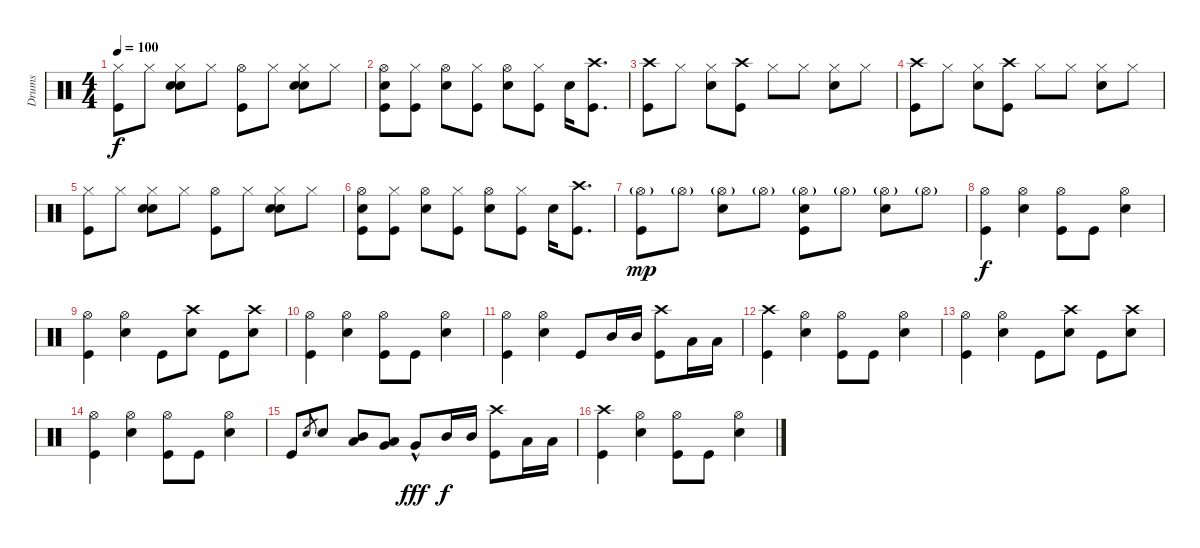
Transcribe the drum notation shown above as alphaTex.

\track ("Drums" "Drums") {instrument percussion}
\staff {score}
\articulation defaults
\ts (4 4)
\tempo 100
\clef neutral
\ks c
("Hi-Hat (closed)" "Kick (hit)").8{dy f volume 12} "Hi-Hat (closed)".8 ("Hi-Hat (closed)" "Hand Clap (hit)" "Snare (hit) 2").8 "Hi-Hat (closed)".8 ("Hi-Hat (open)" "Kick (hit)").8 "Hi-Hat (closed)".8 ("Hi-Hat (closed)" "Hand Clap (hit)" "Snare (hit) 2").8 "Hi-Hat (closed)".8 |
("Hi-Hat (open)" "Hand Clap (hit)" "Kick (hit)").8 ("Hi-Hat (closed)" "Kick (hit)").8 ("Hi-Hat (open)" "Snare (hit) 2").8 ("Hi-Hat (closed)" "Kick (hit)").8 ("Hi-Hat (open)" "Snare (hit) 2").8 ("Hi-Hat (closed)" "Kick (hit)").8 "Snare (hit) 2".16 ("Crash high (hit)" "Kick (hit)").8{d} |
("Crash high (hit)" "Kick (hit)").8 "Hi-Hat (closed)".8 ("Hi-Hat (closed)" "Snare (hit) 2").8 ("Crash high (hit)" "Kick (hit)").8 "Hi-Hat (closed)".8 "Hi-Hat (closed)".8 ("Hi-Hat (closed)" "Snare (hit) 2").8 "Hi-Hat (closed)".8 |
("Crash high (hit)" "Kick (hit)").8 "Hi-Hat (closed)".8 ("Hi-Hat (closed)" "Snare (hit) 2").8 ("Crash high (hit)" "Kick (hit)").8 "Hi-Hat (closed)".8 "Hi-Hat (closed)".8 ("Hi-Hat (closed)" "Snare (hit) 2").8 "Hi-Hat (closed)".8 |
("Hi-Hat (closed)" "Kick (hit)").8 "Hi-Hat (closed)".8 ("Hi-Hat (closed)" "Hand Clap (hit)" "Snare (hit) 2").8 "Hi-Hat (closed)".8 ("Hi-Hat (open)" "Kick (hit)").8 "Hi-Hat (closed)".8 ("Hi-Hat (closed)" "Hand Clap (hit)" "Snare (hit) 2").8 "Hi-Hat (closed)".8 |
("Hi-Hat (open)" "Hand Clap (hit)" "Kick (hit)").8 ("Hi-Hat (closed)" "Kick (hit)").8 ("Hi-Hat (open)" "Snare (hit) 2").8 ("Hi-Hat (closed)" "Kick (hit)").8 ("Hi-Hat (open)" "Snare (hit) 2").8 ("Hi-Hat (closed)" "Kick (hit)").8 "Snare (hit) 2".16 ("Crash high (hit)" "Kick (hit)").8{d} |
("Hi-Hat (open)"{g} "Kick (hit)").8{dy mp} "Hi-Hat (open)"{g}.8 ("Hi-Hat (open)"{g} "Snare (hit) 2").8 "Hi-Hat (open)"{g}.8 ("Hi-Hat (open)"{g} "Snare (hit) 2" "Kick (hit)").8 "Hi-Hat (open)"{g}.8 ("Hi-Hat (open)"{g} "Snare (hit) 2").8 "Hi-Hat (open)"{g}.8 |
("Hi-Hat (open)" "Kick (hit)").4{dy f} ("Hi-Hat (open)" "Snare (hit) 2").4 ("Hi-Hat (open)" "Kick (hit)").8 "Kick (hit)".8 ("Hi-Hat (open)" "Snare (hit) 2").4 |
("Hi-Hat (open)" "Kick (hit)").4 ("Hi-Hat (open)" "Snare (hit) 2").4 "Kick (hit)".8 ("Crash high (hit)" "Snare (hit) 2").8 "Kick (hit)".8 ("Crash high (hit)" "Snare (hit) 2").8 |
("Hi-Hat (open)" "Kick (hit)").4 ("Hi-Hat (open)" "Snare (hit) 2").4 ("Hi-Hat (open)" "Kick (hit)").8 "Kick (hit)".8 ("Hi-Hat (open)" "Snare (hit) 2").4 |
("Hi-Hat (open)" "Kick (hit)").4 ("Hi-Hat (open)" "Snare (hit) 2").4 "Kick (hit)".8 "Mid Tom (hit)".16 "Mid Tom (hit)".16 ("Crash high (hit)" "Kick (hit)").8 "Low Tom (hit)".16 "Low Tom (hit)".16 |
("Crash high (hit)" "Kick (hit)").4 ("Hi-Hat (open)" "Snare (hit) 2").4 ("Hi-Hat (open)" "Kick (hit)").8 "Kick (hit)".8 ("Hi-Hat (open)" "Snare (hit) 2").4 |
("Hi-Hat (open)" "Kick (hit)").4 ("Hi-Hat (open)" "Snare (hit) 2").4 "Kick (hit)".8 ("Crash high (hit)" "Snare (hit) 2").8 "Kick (hit)".8 ("Crash high (hit)" "Snare (hit) 2").8 |
("Hi-Hat (open)" "Kick (hit)").4 ("Hi-Hat (open)" "Snare (hit) 2").4 ("Hi-Hat (open)" "Kick (hit)").8 "Kick (hit)".8 ("Hi-Hat (open)" "Snare (hit) 2").4 |
"Kick (hit)".8 "Snare (hit) 2".8{gr} "Snare (hit) 2".8 ("Mid Tom (hit)" "Low Tom (hit)").8 ("Low Tom (hit)" "Very Low Tom (hit)").8 "Very Low Tom (hit)"{hac}.8{dy fff} "Mid Tom (hit)".16{dy f} "Mid Tom (hit)".16 ("Crash high (hit)" "Kick (hit)").8 "Low Tom (hit)".16 "Low Tom (hit)".16 |
("Crash high (hit)" "Kick (hit)").4 ("Hi-Hat (open)" "Snare (hit) 2").4 ("Hi-Hat (open)" "Kick (hit)").8 "Kick (hit)".8 ("Hi-Hat (open)" "Snare (hit) 2").4
